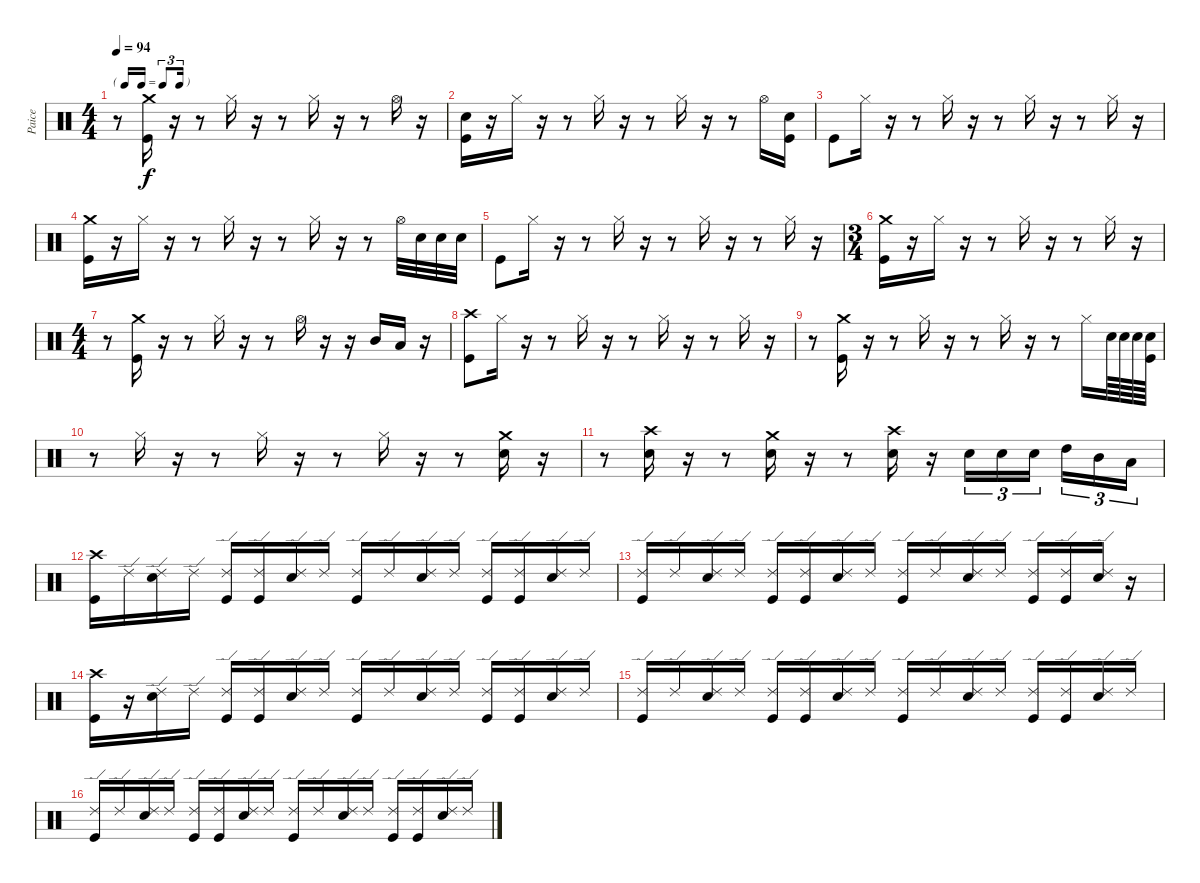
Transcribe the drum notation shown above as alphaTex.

\track ("Paice" "Paice") {instrument percussion}
\staff {score}
\articulation defaults
\ts (4 4)
\tf triplet16th
\tempo 94
\clef neutral
\ks c
r.8{dy f} ("Crash medium (hit)" "Kick (hit)").16 r.16 r.8 "Hi-Hat (closed)".16 r.16 r.8 "Hi-Hat (closed)".16 r.16 r.8 "Hi-Hat (open)".16 r.16 |
("Snare (hit) 2" "Kick (hit)").16 r.16 "Hi-Hat (closed)".16 r.16 r.8 "Hi-Hat (closed)".16 r.16 r.8 "Hi-Hat (closed)".16 r.16 r.8 "Hi-Hat (open)".16 ("Snare (hit) 2" "Kick (hit)").16 |
"Kick (hit)".8 "Hi-Hat (closed)".16 r.16 r.8 "Hi-Hat (closed)".16 r.16 r.8 "Hi-Hat (closed)".16 r.16 r.8 "Hi-Hat (closed)".16 r.16 |
("Crash medium (hit)" "Kick (hit)").16 r.16 "Hi-Hat (closed)".16 r.16 r.8 "Hi-Hat (closed)".16 r.16 r.8 "Hi-Hat (closed)".16 r.16 r.8 "Hi-Hat (open)".32 "Snare (hit) 2".32 "Snare (hit) 2".32 "Snare (hit) 2".32 |
"Kick (hit)".8 "Hi-Hat (closed)".16 r.16 r.8 "Hi-Hat (closed)".16 r.16 r.8 "Hi-Hat (closed)".16 r.16 r.8 "Hi-Hat (closed)".16 r.16 |
\ts (3 4)
("Crash medium (hit)" "Kick (hit)").16 r.16 "Hi-Hat (closed)".16 r.16 r.8 "Hi-Hat (closed)".16 r.16 r.8 "Hi-Hat (closed)".16 r.16 |
\ts (4 4)
r.8 ("Crash medium (hit)" "Kick (hit)").16 r.16 r.8 "Hi-Hat (closed)".16 r.16 r.8 "Hi-Hat (open)".16 r.16 r.16 "Mid Tom (hit)".16 "Low Tom (hit)".16 r.16 |
("Crash high (hit)" "Kick (hit)").8 "Hi-Hat (closed)".16 r.16 r.8 "Hi-Hat (closed)".16 r.16 r.8 "Hi-Hat (closed)".16 r.16 r.8 "Hi-Hat (closed)".16 r.16 |
r.8 ("Crash medium (hit)" "Kick (hit)").16 r.16 r.8 "Hi-Hat (closed)".16 r.16 r.8 "Hi-Hat (closed)".16 r.16 r.8 "Hi-Hat (closed)".16 "Snare (hit) 2".64 "Snare (hit) 2".64 "Snare (hit) 2".64 ("Snare (hit) 2" "Kick (hit)").64 |
r.8 "Hi-Hat (closed)".16 r.16 r.8 "Hi-Hat (closed)".16 r.16 r.8 "Hi-Hat (closed)".16 r.16 r.8 ("Crash medium (hit)" "Snare (hit) 2").16 r.16 |
r.8 ("Crash high (hit)" "Snare (hit) 2").16 r.16 r.8 ("Crash medium (hit)" "Snare (hit) 2").16 r.16 r.8 ("Crash high (hit)" "Snare (hit) 2").16 r.16 "Snare (hit) 2".16{tu (3 2)} "Snare (hit) 2".16{tu (3 2)} "Snare (hit) 2".16{tu (3 2) beam splitsecondary} "High Tom (hit)".16{tu (3 2)} "Mid Tom (hit)".16{tu (3 2)} "Low Tom (hit)".16{tu (3 2)} |
("Crash high (hit)" "Kick (hit)").16 "Ride (edge) 2".16 ("Ride (edge) 2" "Snare (hit) 2").16 "Ride (edge) 2".16 ("Ride (edge) 2" "Kick (hit)").16 ("Ride (edge) 2" "Kick (hit)").16 ("Ride (edge) 2" "Snare (hit) 2").16 "Ride (edge) 2".16 ("Ride (edge) 2" "Kick (hit)").16 "Ride (edge) 2".16 ("Ride (edge) 2" "Snare (hit) 2").16 "Ride (edge) 2".16 ("Ride (edge) 2" "Kick (hit)").16 ("Ride (edge) 2" "Kick (hit)").16 ("Ride (edge) 2" "Snare (hit) 2").16 "Ride (edge) 2".16 |
("Ride (edge) 2" "Kick (hit)").16 "Ride (edge) 2".16 ("Ride (edge) 2" "Snare (hit) 2").16 "Ride (edge) 2".16 ("Ride (edge) 2" "Kick (hit)").16 ("Ride (edge) 2" "Kick (hit)").16 ("Ride (edge) 2" "Snare (hit) 2").16 "Ride (edge) 2".16 ("Ride (edge) 2" "Kick (hit)").16 "Ride (edge) 2".16 ("Ride (edge) 2" "Snare (hit) 2").16 "Ride (edge) 2".16 ("Ride (edge) 2" "Kick (hit)").16 ("Ride (edge) 2" "Kick (hit)").16 ("Ride (edge) 2" "Snare (hit) 2").16 r.16 |
("Crash high (hit)" "Kick (hit)").16 r.16 ("Ride (edge) 2" "Snare (hit) 2").16 "Ride (edge) 2".16 ("Ride (edge) 2" "Kick (hit)").16 ("Ride (edge) 2" "Kick (hit)").16 ("Ride (edge) 2" "Snare (hit) 2").16 "Ride (edge) 2".16 ("Ride (edge) 2" "Kick (hit)").16 "Ride (edge) 2".16 ("Ride (edge) 2" "Snare (hit) 2").16 "Ride (edge) 2".16 ("Ride (edge) 2" "Kick (hit)").16 ("Ride (edge) 2" "Kick (hit)").16 ("Ride (edge) 2" "Snare (hit) 2").16 "Ride (edge) 2".16 |
("Ride (edge) 2" "Kick (hit)").16 "Ride (edge) 2".16 ("Ride (edge) 2" "Snare (hit) 2").16 "Ride (edge) 2".16 ("Ride (edge) 2" "Kick (hit)").16 ("Ride (edge) 2" "Kick (hit)").16 ("Ride (edge) 2" "Snare (hit) 2").16 "Ride (edge) 2".16 ("Ride (edge) 2" "Kick (hit)").16 "Ride (edge) 2".16 ("Ride (edge) 2" "Snare (hit) 2").16 "Ride (edge) 2".16 ("Ride (edge) 2" "Kick (hit)").16 ("Ride (edge) 2" "Kick (hit)").16 ("Ride (edge) 2" "Snare (hit) 2").16 "Ride (edge) 2".16 |
("Ride (edge) 2" "Kick (hit)").16 "Ride (edge) 2".16 ("Ride (edge) 2" "Snare (hit) 2").16 "Ride (edge) 2".16 ("Ride (edge) 2" "Kick (hit)").16 ("Ride (edge) 2" "Kick (hit)").16 ("Ride (edge) 2" "Snare (hit) 2").16 "Ride (edge) 2".16 ("Ride (edge) 2" "Kick (hit)").16 "Ride (edge) 2".16 ("Ride (edge) 2" "Snare (hit) 2").16 "Ride (edge) 2".16 ("Ride (edge) 2" "Kick (hit)").16 ("Ride (edge) 2" "Kick (hit)").16 ("Ride (edge) 2" "Snare (hit) 2").16 "Ride (edge) 2".16
